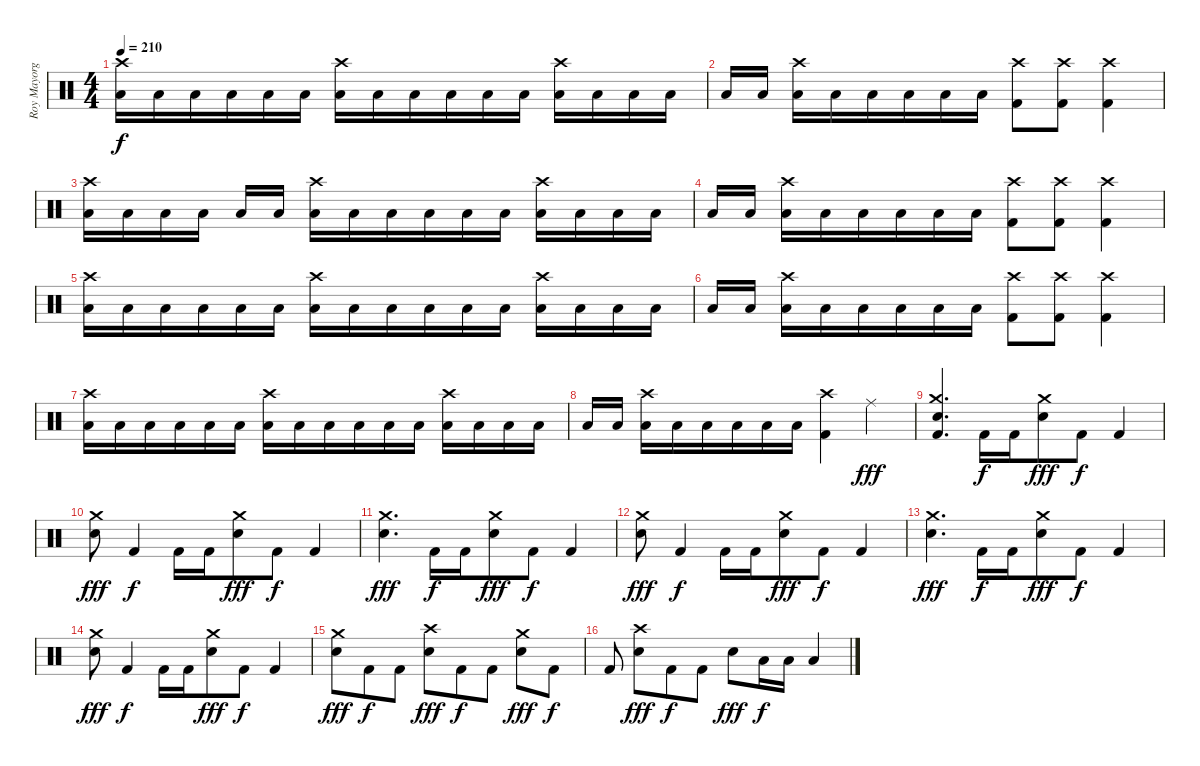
\track ("Roy Mayorga" "Roy Mayorg") {instrument percussion}
\staff {score}
\articulation defaults
\ts (4 4)
\tempo 210
\clef neutral
\ks c
("Crash high (hit)" "Low Tom (hit)").16{dy f} "Low Tom (hit)".16 "Low Tom (hit)".16 "Low Tom (hit)".16{beam merge} "Low Tom (hit)".16 "Low Tom (hit)".16{beam split} ("Crash high (hit)" "Low Tom (hit)").16 "Low Tom (hit)".16{beam merge} "Low Tom (hit)".16 "Low Tom (hit)".16 "Low Tom (hit)".16 "Low Tom (hit)".16{beam split} ("Crash high (hit)" "Low Tom (hit)").16 "Low Tom (hit)".16 "Low Tom (hit)".16 "Low Tom (hit)".16 |
"Low Tom (hit)".16 "Low Tom (hit)".16{beam split} ("Crash high (hit)" "Low Tom (hit)").16 "Low Tom (hit)".16{beam merge} "Low Tom (hit)".16 "Low Tom (hit)".16 "Low Tom (hit)".16 "Low Tom (hit)".16{beam split} ("Crash high (hit)" "Kick (hit) 2").8 ("Crash high (hit)" "Kick (hit) 2").8 ("Crash high (hit)" "Kick (hit) 2").4 |
("Crash high (hit)" "Low Tom (hit)").16 "Low Tom (hit)".16 "Low Tom (hit)".16 "Low Tom (hit)".16 "Low Tom (hit)".16 "Low Tom (hit)".16{beam split} ("Crash high (hit)" "Low Tom (hit)").16 "Low Tom (hit)".16{beam merge} "Low Tom (hit)".16 "Low Tom (hit)".16 "Low Tom (hit)".16 "Low Tom (hit)".16{beam split} ("Crash high (hit)" "Low Tom (hit)").16 "Low Tom (hit)".16 "Low Tom (hit)".16 "Low Tom (hit)".16 |
"Low Tom (hit)".16 "Low Tom (hit)".16{beam split} ("Crash high (hit)" "Low Tom (hit)").16 "Low Tom (hit)".16{beam merge} "Low Tom (hit)".16 "Low Tom (hit)".16 "Low Tom (hit)".16 "Low Tom (hit)".16 ("Crash high (hit)" "Kick (hit) 2").8 ("Crash high (hit)" "Kick (hit) 2").8 ("Crash high (hit)" "Kick (hit) 2").4 |
("Crash high (hit)" "Low Tom (hit)").16 "Low Tom (hit)".16 "Low Tom (hit)".16 "Low Tom (hit)".16{beam merge} "Low Tom (hit)".16 "Low Tom (hit)".16{beam split} ("Crash high (hit)" "Low Tom (hit)").16 "Low Tom (hit)".16{beam merge} "Low Tom (hit)".16 "Low Tom (hit)".16 "Low Tom (hit)".16 "Low Tom (hit)".16{beam split} ("Crash high (hit)" "Low Tom (hit)").16 "Low Tom (hit)".16 "Low Tom (hit)".16 "Low Tom (hit)".16 |
"Low Tom (hit)".16 "Low Tom (hit)".16{beam split} ("Crash high (hit)" "Low Tom (hit)").16 "Low Tom (hit)".16{beam merge} "Low Tom (hit)".16 "Low Tom (hit)".16 "Low Tom (hit)".16 "Low Tom (hit)".16 ("Crash high (hit)" "Kick (hit) 2").8 ("Crash high (hit)" "Kick (hit) 2").8 ("Crash high (hit)" "Kick (hit) 2").4 |
("Crash high (hit)" "Low Tom (hit)").16 "Low Tom (hit)".16 "Low Tom (hit)".16 "Low Tom (hit)".16{beam merge} "Low Tom (hit)".16 "Low Tom (hit)".16{beam split} ("Crash high (hit)" "Low Tom (hit)").16 "Low Tom (hit)".16{beam merge} "Low Tom (hit)".16 "Low Tom (hit)".16 "Low Tom (hit)".16 "Low Tom (hit)".16{beam split} ("Crash high (hit)" "Low Tom (hit)").16 "Low Tom (hit)".16 "Low Tom (hit)".16 "Low Tom (hit)".16 |
"Low Tom (hit)".16 "Low Tom (hit)".16{beam split} ("Crash high (hit)" "Low Tom (hit)").16 "Low Tom (hit)".16{beam merge} "Low Tom (hit)".16 "Low Tom (hit)".16 "Low Tom (hit)".16 "Low Tom (hit)".16 ("Crash high (hit)" "Kick (hit) 2").4 "Ride (middle)".4{dy fff} |
("Crash medium (hit)" "Electric Snare (hit)" "Kick (hit) 2").4{d} "Kick (hit) 2".16{dy f} "Kick (hit) 2".16{beam merge} ("Crash medium (hit)" "Electric Snare (hit)").8{dy fff} "Kick (hit) 2".8{dy f} "Kick (hit) 2".4 |
("Crash medium (hit)" "Electric Snare (hit)").8{dy fff} "Kick (hit) 2".4{dy f} "Kick (hit) 2".16 "Kick (hit) 2".16{beam merge} ("Crash medium (hit)" "Electric Snare (hit)").8{dy fff} "Kick (hit) 2".8{dy f} "Kick (hit) 2".4 |
("Crash medium (hit)" "Electric Snare (hit)").4{d dy fff} "Kick (hit) 2".16{dy f} "Kick (hit) 2".16{beam merge} ("Crash medium (hit)" "Electric Snare (hit)").8{dy fff} "Kick (hit) 2".8{dy f} "Kick (hit) 2".4 |
("Crash medium (hit)" "Electric Snare (hit)").8{dy fff} "Kick (hit) 2".4{dy f} "Kick (hit) 2".16 "Kick (hit) 2".16{beam merge} ("Crash medium (hit)" "Electric Snare (hit)").8{dy fff} "Kick (hit) 2".8{dy f} "Kick (hit) 2".4 |
("Crash medium (hit)" "Electric Snare (hit)").4{d dy fff} "Kick (hit) 2".16{dy f} "Kick (hit) 2".16{beam merge} ("Crash medium (hit)" "Electric Snare (hit)").8{dy fff} "Kick (hit) 2".8{dy f} "Kick (hit) 2".4 |
("Crash medium (hit)" "Electric Snare (hit)").8{dy fff} "Kick (hit) 2".4{dy f} "Kick (hit) 2".16 "Kick (hit) 2".16{beam merge} ("Crash medium (hit)" "Electric Snare (hit)").8{dy fff} "Kick (hit) 2".8{dy f} "Kick (hit) 2".4 |
("Crash medium (hit)" "Electric Snare (hit)").8{dy fff} "Kick (hit) 2".8{dy f beam merge} "Kick (hit) 2".8{beam split} ("Crash high (hit)" "Electric Snare (hit)").8{dy fff beam merge} "Kick (hit) 2".8{dy f} "Kick (hit) 2".8{beam split} ("Crash medium (hit)" "Electric Snare (hit)").8{dy fff} "Kick (hit) 2".8{dy f} |
"Kick (hit) 2".8{beam split} ("Crash high (hit)" "Electric Snare (hit)").8{dy fff beam merge} "Kick (hit) 2".8{dy f} "Kick (hit) 2".8 "Electric Snare (hit)".8{dy fff} "Low Tom (hit)".16{dy f} "Low Tom (hit)".16 "Low Tom (hit)".4
